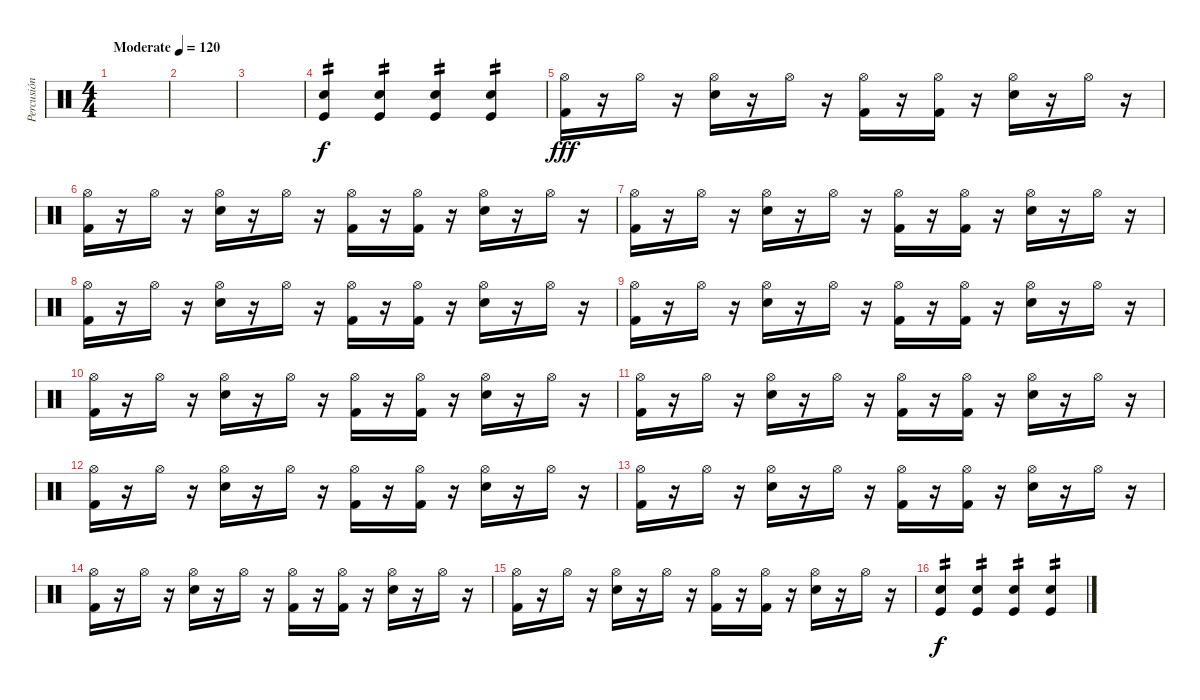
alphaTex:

\track ("Percusión" "Percusión") {instrument percussion}
\staff {score}
\articulation defaults
\ts (4 4)
\tempo (120 "Moderate")
\clef neutral
\ks c
|
|
|
("Snare (hit) 2" "Kick (hit)").4{tp 2} ("Snare (hit) 2" "Kick (hit)").4{tp 2} ("Snare (hit) 2" "Kick (hit)").4{tp 2} ("Snare (hit) 2" "Kick (hit)").4{tp 2} |
("Hi-Hat (open)" "Kick (hit) 2").16{dy fff} r.16 "Hi-Hat (open)".16 r.16 ("Hi-Hat (open)" "Snare (hit) 2").16 r.16 "Hi-Hat (open)".16 r.16 ("Hi-Hat (open)" "Kick (hit) 2").16 r.16 ("Hi-Hat (open)" "Kick (hit) 2").16 r.16 ("Hi-Hat (open)" "Snare (hit) 2").16 r.16 "Hi-Hat (open)".16 r.16 |
("Hi-Hat (open)" "Kick (hit) 2").16 r.16 "Hi-Hat (open)".16 r.16 ("Hi-Hat (open)" "Snare (hit) 2").16 r.16 "Hi-Hat (open)".16 r.16 ("Hi-Hat (open)" "Kick (hit) 2").16 r.16 ("Hi-Hat (open)" "Kick (hit) 2").16 r.16 ("Hi-Hat (open)" "Snare (hit) 2").16 r.16 "Hi-Hat (open)".16 r.16 |
("Hi-Hat (open)" "Kick (hit) 2").16 r.16 "Hi-Hat (open)".16 r.16 ("Hi-Hat (open)" "Snare (hit) 2").16 r.16 "Hi-Hat (open)".16 r.16 ("Hi-Hat (open)" "Kick (hit) 2").16 r.16 ("Hi-Hat (open)" "Kick (hit) 2").16 r.16 ("Hi-Hat (open)" "Snare (hit) 2").16 r.16 "Hi-Hat (open)".16 r.16 |
("Hi-Hat (open)" "Kick (hit) 2").16 r.16 "Hi-Hat (open)".16 r.16 ("Hi-Hat (open)" "Snare (hit) 2").16 r.16 "Hi-Hat (open)".16 r.16 ("Hi-Hat (open)" "Kick (hit) 2").16 r.16 ("Hi-Hat (open)" "Kick (hit) 2").16 r.16 ("Hi-Hat (open)" "Snare (hit) 2").16 r.16 "Hi-Hat (open)".16 r.16 |
("Hi-Hat (open)" "Kick (hit) 2").16 r.16 "Hi-Hat (open)".16 r.16 ("Hi-Hat (open)" "Snare (hit) 2").16 r.16 "Hi-Hat (open)".16 r.16 ("Hi-Hat (open)" "Kick (hit) 2").16 r.16 ("Hi-Hat (open)" "Kick (hit) 2").16 r.16 ("Hi-Hat (open)" "Snare (hit) 2").16 r.16 "Hi-Hat (open)".16 r.16 |
("Hi-Hat (open)" "Kick (hit) 2").16 r.16 "Hi-Hat (open)".16 r.16 ("Hi-Hat (open)" "Snare (hit) 2").16 r.16 "Hi-Hat (open)".16 r.16 ("Hi-Hat (open)" "Kick (hit) 2").16 r.16 ("Hi-Hat (open)" "Kick (hit) 2").16 r.16 ("Hi-Hat (open)" "Snare (hit) 2").16 r.16 "Hi-Hat (open)".16 r.16 |
("Hi-Hat (open)" "Kick (hit) 2").16 r.16 "Hi-Hat (open)".16 r.16 ("Hi-Hat (open)" "Snare (hit) 2").16 r.16 "Hi-Hat (open)".16 r.16 ("Hi-Hat (open)" "Kick (hit) 2").16 r.16 ("Hi-Hat (open)" "Kick (hit) 2").16 r.16 ("Hi-Hat (open)" "Snare (hit) 2").16 r.16 "Hi-Hat (open)".16 r.16 |
("Hi-Hat (open)" "Kick (hit) 2").16 r.16 "Hi-Hat (open)".16 r.16 ("Hi-Hat (open)" "Snare (hit) 2").16 r.16 "Hi-Hat (open)".16 r.16 ("Hi-Hat (open)" "Kick (hit) 2").16 r.16 ("Hi-Hat (open)" "Kick (hit) 2").16 r.16 ("Hi-Hat (open)" "Snare (hit) 2").16 r.16 "Hi-Hat (open)".16 r.16 |
("Hi-Hat (open)" "Kick (hit) 2").16 r.16 "Hi-Hat (open)".16 r.16 ("Hi-Hat (open)" "Snare (hit) 2").16 r.16 "Hi-Hat (open)".16 r.16 ("Hi-Hat (open)" "Kick (hit) 2").16 r.16 ("Hi-Hat (open)" "Kick (hit) 2").16 r.16 ("Hi-Hat (open)" "Snare (hit) 2").16 r.16 "Hi-Hat (open)".16 r.16 |
("Hi-Hat (open)" "Kick (hit) 2").16 r.16 "Hi-Hat (open)".16 r.16 ("Hi-Hat (open)" "Snare (hit) 2").16 r.16 "Hi-Hat (open)".16 r.16 ("Hi-Hat (open)" "Kick (hit) 2").16 r.16 ("Hi-Hat (open)" "Kick (hit) 2").16 r.16 ("Hi-Hat (open)" "Snare (hit) 2").16 r.16 "Hi-Hat (open)".16 r.16 |
("Hi-Hat (open)" "Kick (hit) 2").16 r.16 "Hi-Hat (open)".16 r.16 ("Hi-Hat (open)" "Snare (hit) 2").16 r.16 "Hi-Hat (open)".16 r.16 ("Hi-Hat (open)" "Kick (hit) 2").16 r.16 ("Hi-Hat (open)" "Kick (hit) 2").16 r.16 ("Hi-Hat (open)" "Snare (hit) 2").16 r.16 "Hi-Hat (open)".16 r.16 |
("Snare (hit) 2" "Kick (hit)").4{tp 2 dy f} ("Snare (hit) 2" "Kick (hit)").4{tp 2} ("Snare (hit) 2" "Kick (hit)").4{tp 2} ("Snare (hit) 2" "Kick (hit)").4{tp 2}
